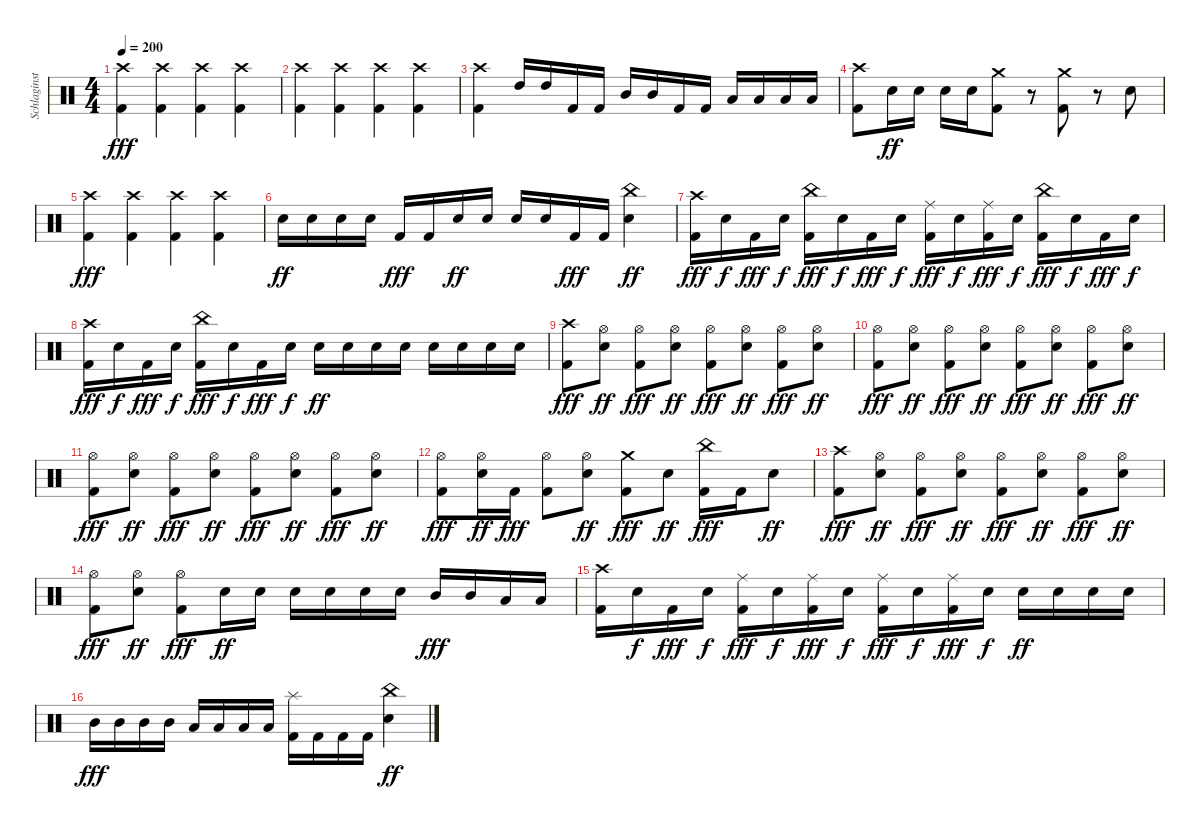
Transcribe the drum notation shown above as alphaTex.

\track ("Schlaginstrumente - Auswahl" "Schlaginst") {instrument percussion}
\staff {score}
\articulation defaults
\ts (4 4)
\tempo 200
\clef neutral
\ks c
("Crash high (hit)" "Kick (hit) 2").4{dy fff} ("Crash high (hit)" "Kick (hit) 2").4 ("Crash high (hit)" "Kick (hit) 2").4 ("Crash high (hit)" "Kick (hit) 2").4 |
("Crash high (hit)" "Kick (hit) 2").4 ("Crash high (hit)" "Kick (hit) 2").4 ("Crash high (hit)" "Kick (hit) 2").4 ("Crash high (hit)" "Kick (hit) 2").4 |
("Crash high (hit)" "Kick (hit) 2").4 "High Tom (hit)".16 "High Tom (hit)".16 "Kick (hit) 2".16 "Kick (hit) 2".16 "Mid Tom (hit)".16 "Mid Tom (hit)".16 "Kick (hit) 2".16 "Kick (hit) 2".16 "Low Tom (hit)".16 "Low Tom (hit)".16 "Low Tom (hit)".16 "Low Tom (hit)".16 |
("Crash high (hit)" "Kick (hit) 2").8 "Snare (hit) 2".16{dy ff} "Snare (hit) 2".16 "Snare (hit) 2".16 "Snare (hit) 2".16 ("Crash medium (hit)" "Kick (hit) 2").8 r.8 ("Crash medium (hit)" "Kick (hit) 2").8 r.8 "Snare (hit) 2".8 |
("Crash high (hit)" "Kick (hit) 2").4{dy fff} ("Crash high (hit)" "Kick (hit) 2").4 ("Crash high (hit)" "Kick (hit) 2").4 ("Crash high (hit)" "Kick (hit) 2").4 |
"Snare (hit) 2".16{dy ff} "Snare (hit) 2".16 "Snare (hit) 2".16 "Snare (hit) 2".16 "Kick (hit) 2".16{dy fff} "Kick (hit) 2".16 "Snare (hit) 2".16{dy ff} "Snare (hit) 2".16 "Snare (hit) 2".16 "Snare (hit) 2".16 "Kick (hit) 2".16{dy fff} "Kick (hit) 2".16 ("China (hit)" "Snare (hit) 2").4{dy ff} |
("Crash high (hit)" "Kick (hit) 2").16{dy fff} "Snare (hit) 2".16{dy f} "Kick (hit) 2".16{dy fff} "Snare (hit) 2".16{dy f} ("China (hit)" "Kick (hit) 2").16{dy fff} "Snare (hit) 2".16{dy f} "Kick (hit) 2".16{dy fff} "Snare (hit) 2".16{dy f} ("Ride (middle)" "Kick (hit) 2").16{dy fff} "Snare (hit) 2".16{dy f} ("Ride (middle)" "Kick (hit) 2").16{dy fff} "Snare (hit) 2".16{dy f} ("China (hit)" "Kick (hit) 2").16{dy fff} "Snare (hit) 2".16{dy f} "Kick (hit) 2".16{dy fff} "Snare (hit) 2".16{dy f} |
("Crash high (hit)" "Kick (hit) 2").16{dy fff} "Snare (hit) 2".16{dy f} "Kick (hit) 2".16{dy fff} "Snare (hit) 2".16{dy f} ("China (hit)" "Kick (hit) 2").16{dy fff} "Snare (hit) 2".16{dy f} "Kick (hit) 2".16{dy fff} "Snare (hit) 2".16{dy f} "Snare (hit) 2".16{dy ff} "Snare (hit) 2".16 "Snare (hit) 2".16 "Snare (hit) 2".16 "Snare (hit) 2".16 "Snare (hit) 2".16 "Snare (hit) 2".16 "Snare (hit) 2".16 |
("Crash high (hit)" "Kick (hit) 2").8{dy fff} ("Hi-Hat (open)" "Snare (hit) 2").8{dy ff} ("Hi-Hat (open)" "Kick (hit) 2").8{dy fff} ("Hi-Hat (open)" "Snare (hit) 2").8{dy ff} ("Hi-Hat (open)" "Kick (hit) 2").8{dy fff} ("Hi-Hat (open)" "Snare (hit) 2").8{dy ff} ("Hi-Hat (open)" "Kick (hit) 2").8{dy fff} ("Hi-Hat (open)" "Snare (hit) 2").8{dy ff} |
("Hi-Hat (open)" "Kick (hit) 2").8{dy fff} ("Hi-Hat (open)" "Snare (hit) 2").8{dy ff} ("Hi-Hat (open)" "Kick (hit) 2").8{dy fff} ("Hi-Hat (open)" "Snare (hit) 2").8{dy ff} ("Hi-Hat (open)" "Kick (hit) 2").8{dy fff} ("Hi-Hat (open)" "Snare (hit) 2").8{dy ff} ("Hi-Hat (open)" "Kick (hit) 2").8{dy fff} ("Hi-Hat (open)" "Snare (hit) 2").8{dy ff} |
("Hi-Hat (open)" "Kick (hit) 2").8{dy fff} ("Hi-Hat (open)" "Snare (hit) 2").8{dy ff} ("Hi-Hat (open)" "Kick (hit) 2").8{dy fff} ("Hi-Hat (open)" "Snare (hit) 2").8{dy ff} ("Hi-Hat (open)" "Kick (hit) 2").8{dy fff} ("Hi-Hat (open)" "Snare (hit) 2").8{dy ff} ("Hi-Hat (open)" "Kick (hit) 2").8{dy fff} ("Hi-Hat (open)" "Snare (hit) 2").8{dy ff} |
("Hi-Hat (open)" "Kick (hit) 2").8{dy fff} ("Hi-Hat (open)" "Snare (hit) 2").16{dy ff} "Kick (hit) 2".16{dy fff} ("Hi-Hat (open)" "Kick (hit) 2").8 ("Hi-Hat (open)" "Snare (hit) 2").8{dy ff} ("Crash medium (hit)" "Kick (hit) 2").8{dy fff} "Snare (hit) 2".8{dy ff} ("China (hit)" "Kick (hit) 2").16{dy fff} "Kick (hit) 2".16 "Snare (hit) 2".8{dy ff} |
("Crash high (hit)" "Kick (hit) 2").8{dy fff} ("Hi-Hat (open)" "Snare (hit) 2").8{dy ff} ("Hi-Hat (open)" "Kick (hit) 2").8{dy fff} ("Hi-Hat (open)" "Snare (hit) 2").8{dy ff} ("Hi-Hat (open)" "Kick (hit) 2").8{dy fff} ("Hi-Hat (open)" "Snare (hit) 2").8{dy ff} ("Hi-Hat (open)" "Kick (hit) 2").8{dy fff} ("Hi-Hat (open)" "Snare (hit) 2").8{dy ff} |
("Hi-Hat (open)" "Kick (hit) 2").8{dy fff} ("Hi-Hat (open)" "Snare (hit) 2").8{dy ff} ("Hi-Hat (open)" "Kick (hit) 2").8{dy fff} "Snare (hit) 2".16{dy ff} "Snare (hit) 2".16 "Snare (hit) 2".16 "Snare (hit) 2".16 "Snare (hit) 2".16 "Snare (hit) 2".16 "Mid Tom (hit)".16{dy fff} "Mid Tom (hit)".16 "Low Tom (hit)".16 "Low Tom (hit)".16 |
("Crash high (hit)" "Kick (hit) 2").16 "Snare (hit) 2".16{dy f} "Kick (hit) 2".16{dy fff} "Snare (hit) 2".16{dy f} ("Ride (middle)" "Kick (hit) 2").16{dy fff} "Snare (hit) 2".16{dy f} ("Ride (middle)" "Kick (hit) 2").16{dy fff} "Snare (hit) 2".16{dy f} ("Ride (middle)" "Kick (hit) 2").16{dy fff} "Snare (hit) 2".16{dy f} ("Ride (middle)" "Kick (hit) 2").16{dy fff} "Snare (hit) 2".16{dy f} "Snare (hit) 2".16{dy ff} "Snare (hit) 2".16 "Snare (hit) 2".16 "Snare (hit) 2".16 |
"Mid Tom (hit)".16{dy fff} "Mid Tom (hit)".16 "Mid Tom (hit)".16 "Mid Tom (hit)".16 "Low Tom (hit)".16 "Low Tom (hit)".16 "Low Tom (hit)".16 "Low Tom (hit)".16 ("Splash (hit)" "Kick (hit) 2").16 "Kick (hit) 2".16 "Kick (hit) 2".16 "Kick (hit) 2".16 ("China (hit)" "Snare (hit) 2").4{dy ff}
